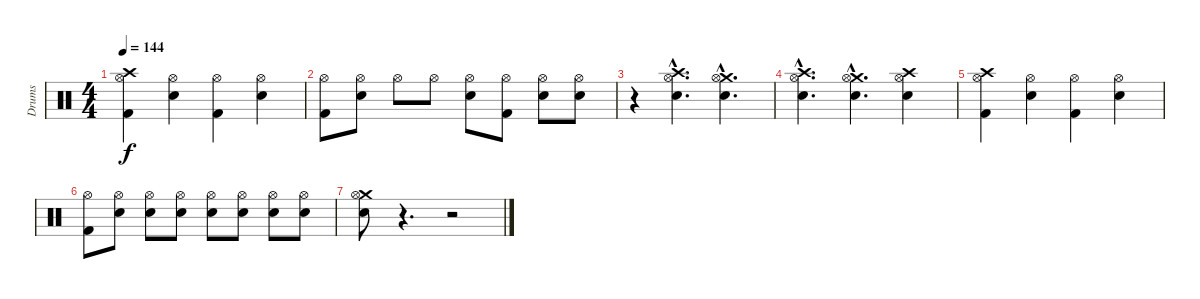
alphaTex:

\track ("Drums" "Drums") {instrument percussion}
\staff {score}
\articulation defaults
\ts (4 4)
\tempo 144
\clef neutral
\ks c
("Crash high (hit)" "Hi-Hat (open)" "Kick (hit) 2").4{dy f} ("Hi-Hat (open)" "Electric Snare (hit)").4 ("Hi-Hat (open)" "Kick (hit) 2").4 ("Hi-Hat (open)" "Electric Snare (hit)").4 |
("Hi-Hat (open)" "Kick (hit) 2").8 ("Hi-Hat (open)" "Electric Snare (hit)").8 "Hi-Hat (open)".8 "Hi-Hat (open)".8 ("Hi-Hat (open)" "Electric Snare (hit)").8 ("Hi-Hat (open)" "Kick (hit) 2").8 ("Hi-Hat (open)" "Electric Snare (hit)").8 ("Hi-Hat (open)" "Electric Snare (hit)").8 |
r.4 ("Crash high (hit)"{hac} "Hi-Hat (open)"{hac} "Electric Snare (hit)"{hac}).4{d} ("Crash medium (hit)"{hac} "Hi-Hat (open)"{hac} "Electric Snare (hit)"{hac}).4{d} |
("Crash high (hit)"{hac} "Hi-Hat (open)"{hac} "Electric Snare (hit)"{hac}).4{d} ("Crash medium (hit)"{hac} "Hi-Hat (open)"{hac} "Electric Snare (hit)"{hac}).4{d} ("Crash high (hit)" "Hi-Hat (open)" "Electric Snare (hit)").4 |
("Crash high (hit)" "Hi-Hat (open)" "Kick (hit) 2").4 ("Hi-Hat (open)" "Electric Snare (hit)").4 ("Hi-Hat (open)" "Kick (hit) 2").4 ("Hi-Hat (open)" "Electric Snare (hit)").4 |
("Hi-Hat (open)" "Kick (hit) 2").8 ("Hi-Hat (open)" "Electric Snare (hit)").8 ("Hi-Hat (open)" "Electric Snare (hit)").8 ("Hi-Hat (open)" "Electric Snare (hit)").8 ("Hi-Hat (open)" "Electric Snare (hit)").8 ("Hi-Hat (open)" "Electric Snare (hit)").8 ("Hi-Hat (open)" "Electric Snare (hit)").8 ("Hi-Hat (open)" "Electric Snare (hit)").8 |
("Crash medium (hit)" "Hi-Hat (open)" "Electric Snare (hit)").8 r.4{d} r.2
